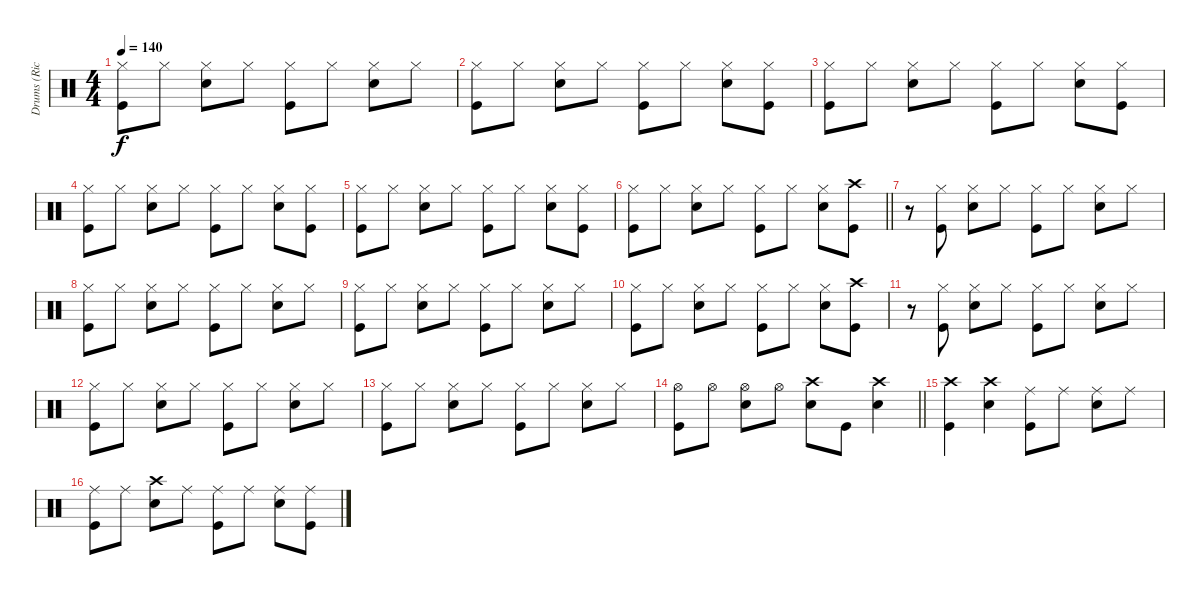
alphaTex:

\track ("Drums (Rick)" "Drums (Ric") {instrument percussion}
\staff {score}
\articulation defaults
\ts (4 4)
\tempo 140
\clef neutral
\ks aminor
("Hi-Hat (closed)" "Kick (hit)").8{dy f} "Hi-Hat (closed)".8 ("Hi-Hat (closed)" "Snare (hit) 2").8 "Hi-Hat (closed)".8 ("Hi-Hat (closed)" "Kick (hit)").8 "Hi-Hat (closed)".8 ("Hi-Hat (closed)" "Snare (hit) 2").8 "Hi-Hat (closed)".8 |
("Hi-Hat (closed)" "Kick (hit)").8 "Hi-Hat (closed)".8 ("Hi-Hat (closed)" "Snare (hit) 2").8 "Hi-Hat (closed)".8 ("Hi-Hat (closed)" "Kick (hit)").8 "Hi-Hat (closed)".8 ("Hi-Hat (closed)" "Snare (hit) 2").8 ("Hi-Hat (closed)" "Kick (hit)").8 |
("Hi-Hat (closed)" "Kick (hit)").8 "Hi-Hat (closed)".8 ("Hi-Hat (closed)" "Snare (hit) 2").8 "Hi-Hat (closed)".8 ("Hi-Hat (closed)" "Kick (hit)").8 "Hi-Hat (closed)".8 ("Hi-Hat (closed)" "Snare (hit) 2").8 ("Hi-Hat (closed)" "Kick (hit)").8 |
("Hi-Hat (closed)" "Kick (hit)").8 "Hi-Hat (closed)".8 ("Hi-Hat (closed)" "Snare (hit) 2").8 "Hi-Hat (closed)".8 ("Hi-Hat (closed)" "Kick (hit)").8 "Hi-Hat (closed)".8 ("Hi-Hat (closed)" "Snare (hit) 2").8 ("Hi-Hat (closed)" "Kick (hit)").8 |
("Hi-Hat (closed)" "Kick (hit)").8 "Hi-Hat (closed)".8 ("Hi-Hat (closed)" "Snare (hit) 2").8 "Hi-Hat (closed)".8 ("Hi-Hat (closed)" "Kick (hit)").8 "Hi-Hat (closed)".8 ("Hi-Hat (closed)" "Snare (hit) 2").8 ("Hi-Hat (closed)" "Kick (hit)").8 |
\barLineRight lightlight
("Hi-Hat (closed)" "Kick (hit)").8 "Hi-Hat (closed)".8 ("Hi-Hat (closed)" "Snare (hit) 2").8 "Hi-Hat (closed)".8 ("Hi-Hat (closed)" "Kick (hit)").8 "Hi-Hat (closed)".8 ("Hi-Hat (closed)" "Snare (hit) 2").8 ("Crash high (hit)" "Kick (hit)").8 |
r.8 ("Hi-Hat (closed)" "Kick (hit)").8 ("Hi-Hat (closed)" "Snare (hit) 2").8 "Hi-Hat (closed)".8 ("Hi-Hat (closed)" "Kick (hit)").8 "Hi-Hat (closed)".8 ("Hi-Hat (closed)" "Snare (hit) 2").8 "Hi-Hat (closed)".8 |
("Hi-Hat (closed)" "Kick (hit)").8 "Hi-Hat (closed)".8 ("Hi-Hat (closed)" "Snare (hit) 2").8 "Hi-Hat (closed)".8 ("Hi-Hat (closed)" "Kick (hit)").8 "Hi-Hat (closed)".8 ("Hi-Hat (closed)" "Snare (hit) 2").8 "Hi-Hat (closed)".8 |
("Hi-Hat (closed)" "Kick (hit)").8 "Hi-Hat (closed)".8 ("Hi-Hat (closed)" "Snare (hit) 2").8 "Hi-Hat (closed)".8 ("Hi-Hat (closed)" "Kick (hit)").8 "Hi-Hat (closed)".8 ("Hi-Hat (closed)" "Snare (hit) 2").8 "Hi-Hat (closed)".8 |
("Hi-Hat (closed)" "Kick (hit)").8 "Hi-Hat (closed)".8 ("Hi-Hat (closed)" "Snare (hit) 2").8 "Hi-Hat (closed)".8 ("Hi-Hat (closed)" "Kick (hit)").8 "Hi-Hat (closed)".8 ("Hi-Hat (closed)" "Snare (hit) 2").8 ("Crash high (hit)" "Kick (hit)").8 |
r.8 ("Hi-Hat (closed)" "Kick (hit)").8 ("Hi-Hat (closed)" "Snare (hit) 2").8 "Hi-Hat (closed)".8 ("Hi-Hat (closed)" "Kick (hit)").8 "Hi-Hat (closed)".8 ("Hi-Hat (closed)" "Snare (hit) 2").8 "Hi-Hat (closed)".8 |
("Hi-Hat (closed)" "Kick (hit)").8 "Hi-Hat (closed)".8 ("Hi-Hat (closed)" "Snare (hit) 2").8 "Hi-Hat (closed)".8 ("Hi-Hat (closed)" "Kick (hit)").8 "Hi-Hat (closed)".8 ("Hi-Hat (closed)" "Snare (hit) 2").8 "Hi-Hat (closed)".8 |
("Hi-Hat (closed)" "Kick (hit)").8 "Hi-Hat (closed)".8 ("Hi-Hat (closed)" "Snare (hit) 2").8 "Hi-Hat (closed)".8 ("Hi-Hat (closed)" "Kick (hit)").8 "Hi-Hat (closed)".8 ("Hi-Hat (closed)" "Snare (hit) 2").8 "Hi-Hat (closed)".8 |
\barLineRight lightlight
("Hi-Hat (open)" "Kick (hit)").8 "Hi-Hat (open)".8 ("Hi-Hat (open)" "Snare (hit) 2").8 "Hi-Hat (open)".8 ("Crash high (hit)" "Snare (hit) 2").8 "Kick (hit)".8 ("Crash high (hit)" "Snare (hit) 2").4 |
("Crash high (hit)" "Kick (hit)").4 ("Crash high (hit)" "Snare (hit) 2").4 ("Ride (middle)" "Kick (hit)").8 "Ride (middle)".8 ("Ride (middle)" "Snare (hit) 2").8 "Ride (middle)".8 |
("Ride (middle)" "Kick (hit)").8 "Ride (middle)".8 ("Crash high (hit)" "Snare (hit) 2").8 "Ride (middle)".8 ("Ride (middle)" "Kick (hit)").8 "Ride (middle)".8 ("Ride (middle)" "Snare (hit) 2").8 ("Ride (middle)" "Kick (hit)").8
